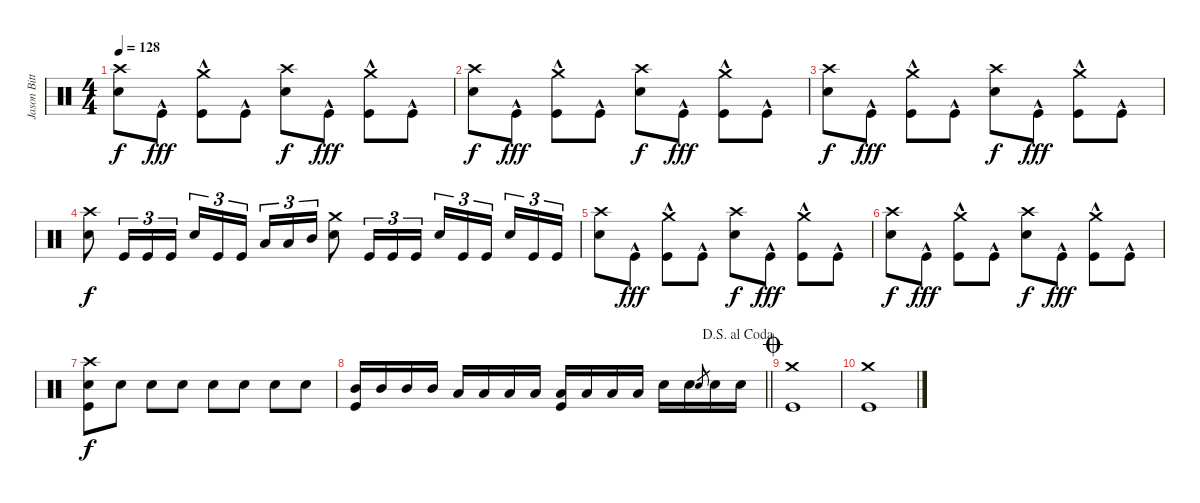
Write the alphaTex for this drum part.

\track ("Jason Bittner" "Jason Bitt") {instrument percussion}
\staff {score}
\articulation defaults
\ts (4 4)
\tempo 128
\clef neutral
\ks c
("Crash high (hit)" "Electric Snare (hit)").8{dy f} "Kick (hit)"{hac}.8{dy fff} ("Crash medium (hit)" "Kick (hit)"{hac}).8 "Kick (hit)"{hac}.8 ("Crash high (hit)" "Electric Snare (hit)").8{dy f} "Kick (hit)"{hac}.8{dy fff} ("Crash medium (hit)" "Kick (hit)"{hac}).8 "Kick (hit)"{hac}.8 |
("Crash high (hit)" "Electric Snare (hit)").8{dy f} "Kick (hit)"{hac}.8{dy fff} ("Crash medium (hit)" "Kick (hit)"{hac}).8 "Kick (hit)"{hac}.8 ("Crash high (hit)" "Electric Snare (hit)").8{dy f} "Kick (hit)"{hac}.8{dy fff} ("Crash medium (hit)" "Kick (hit)"{hac}).8 "Kick (hit)"{hac}.8 |
("Crash high (hit)" "Electric Snare (hit)").8{dy f} "Kick (hit)"{hac}.8{dy fff} ("Crash medium (hit)" "Kick (hit)"{hac}).8 "Kick (hit)"{hac}.8 ("Crash high (hit)" "Electric Snare (hit)").8{dy f} "Kick (hit)"{hac}.8{dy fff} ("Crash medium (hit)" "Kick (hit)"{hac}).8 "Kick (hit)"{hac}.8 |
("Crash high (hit)" "Electric Snare (hit)").8{dy f} "Kick (hit)".16{tu (3 2)} "Kick (hit)".16{tu (3 2)} "Kick (hit)".16{tu (3 2)} "Electric Snare (hit)".16{tu (3 2)} "Kick (hit)".16{tu (3 2)} "Kick (hit)".16{tu (3 2) beam splitsecondary} "Low Tom (hit)".16{tu (3 2)} "Low Tom (hit)".16{tu (3 2)} "Mid Tom (hit)".16{tu (3 2)} ("Crash medium (hit)" "Electric Snare (hit)").8 "Kick (hit)".16{tu (3 2)} "Kick (hit)".16{tu (3 2)} "Kick (hit)".16{tu (3 2)} "Electric Snare (hit)".16{tu (3 2)} "Kick (hit)".16{tu (3 2)} "Kick (hit)".16{tu (3 2) beam splitsecondary} "Electric Snare (hit)".16{tu (3 2)} "Kick (hit)".16{tu (3 2)} "Kick (hit)".16{tu (3 2)} |
("Crash high (hit)" "Electric Snare (hit)").8 "Kick (hit)"{hac}.8{dy fff} ("Crash medium (hit)" "Kick (hit)"{hac}).8 "Kick (hit)"{hac}.8 ("Crash high (hit)" "Electric Snare (hit)").8{dy f} "Kick (hit)"{hac}.8{dy fff} ("Crash medium (hit)" "Kick (hit)"{hac}).8 "Kick (hit)"{hac}.8 |
("Crash high (hit)" "Electric Snare (hit)").8{dy f} "Kick (hit)"{hac}.8{dy fff} ("Crash medium (hit)" "Kick (hit)"{hac}).8 "Kick (hit)"{hac}.8 ("Crash high (hit)" "Electric Snare (hit)").8{dy f} "Kick (hit)"{hac}.8{dy fff} ("Crash medium (hit)" "Kick (hit)"{hac}).8 "Kick (hit)"{hac}.8 |
("Crash high (hit)" "Electric Snare (hit)" "Kick (hit)").8{dy f} "Electric Snare (hit)".8 "Electric Snare (hit)".8 "Electric Snare (hit)".8 "Electric Snare (hit)".8 "Electric Snare (hit)".8 "Electric Snare (hit)".8 "Electric Snare (hit)".8 |
\jump dalsegnoalcoda
\barLineRight lightlight
("Mid Tom (hit)" "Kick (hit)").16 "Mid Tom (hit)".16 "Mid Tom (hit)".16 "Mid Tom (hit)".16 "Low Tom (hit)".16 "Low Tom (hit)".16 "Low Tom (hit)".16 "Low Tom (hit)".16 ("Low Floor Tom (hit)" "Kick (hit)").16 "Low Floor Tom (hit)".16 "Low Floor Tom (hit)".16 "Low Floor Tom (hit)".16 "Electric Snare (hit)".16 "Electric Snare (hit)".16 "Electric Snare (hit)".8{gr} "Electric Snare (hit)".16 "Electric Snare (hit)".16 |
\jump coda
("Crash medium (hit)" "Kick (hit)").1 |
("Crash medium (hit)" "Kick (hit)").1
